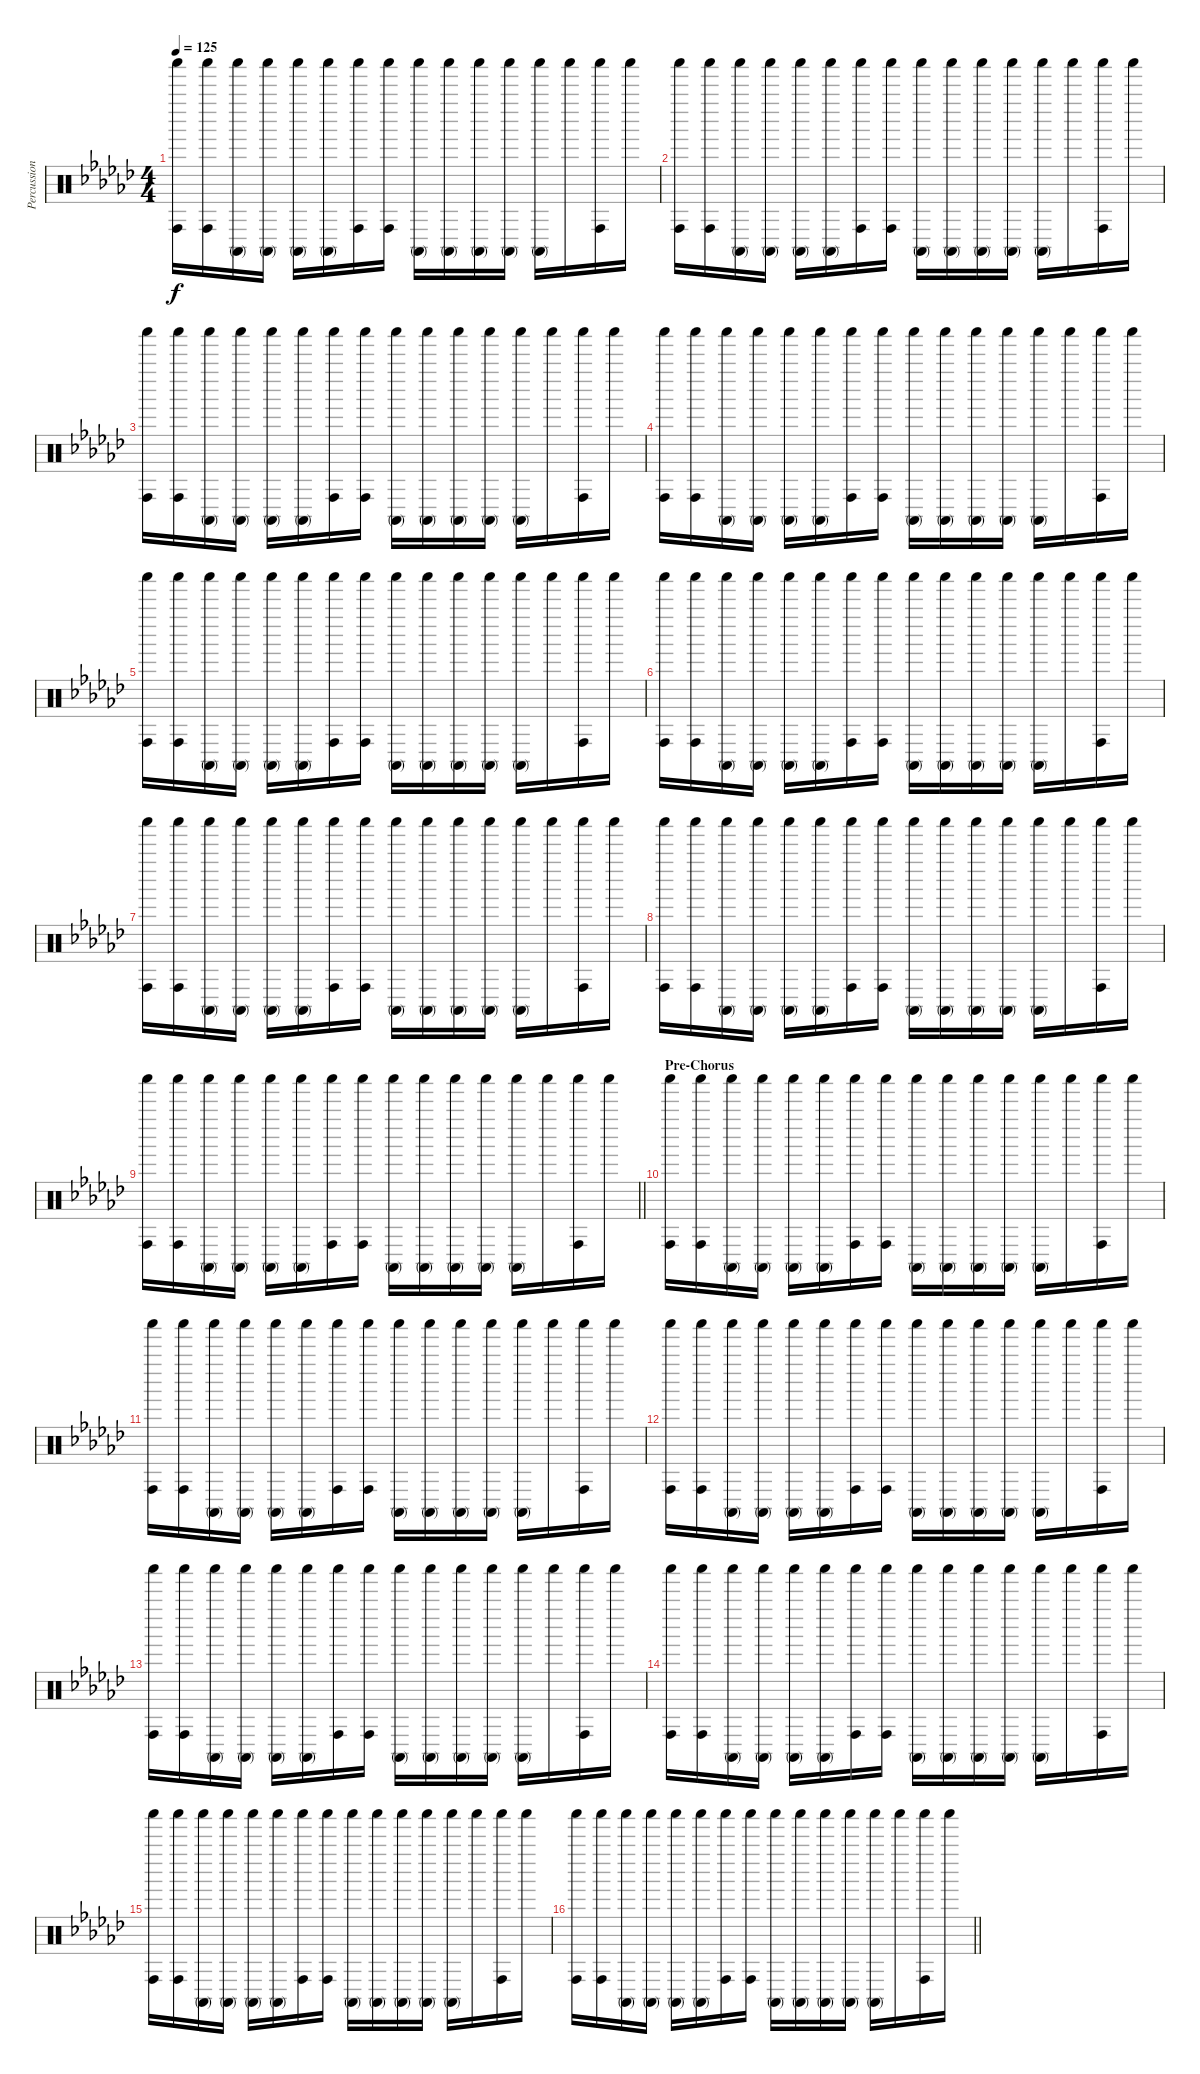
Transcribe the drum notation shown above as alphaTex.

\track ("Percussion" "Percussion") {instrument percussion}
\staff {score}
\articulation defaults
\ts (4 4)
\tempo 125
\clef neutral
\ks gb
("Shaker (hit)" "Conga high (hit)").16{dy f} ("Shaker (hit)" "Conga high (hit)").16 ("Shaker (hit)" "Conga high (mute)").16 ("Shaker (hit)" "Conga high (mute)").16 ("Shaker (hit)" "Conga high (mute)").16 ("Shaker (hit)" "Conga high (mute)").16 ("Shaker (hit)" "Conga high (hit)").16 ("Shaker (hit)" "Conga high (hit)").16 ("Shaker (hit)" "Conga high (mute)").16 ("Shaker (hit)" "Conga high (mute)").16 ("Shaker (hit)" "Conga high (mute)").16 ("Shaker (hit)" "Conga high (mute)").16 ("Shaker (hit)" "Conga high (mute)").16 "Shaker (hit)".16 ("Shaker (hit)" "Conga high (hit)").16 "Shaker (hit)".16 |
("Shaker (hit)" "Conga high (hit)").16 ("Shaker (hit)" "Conga high (hit)").16 ("Shaker (hit)" "Conga high (mute)").16 ("Shaker (hit)" "Conga high (mute)").16 ("Shaker (hit)" "Conga high (mute)").16 ("Shaker (hit)" "Conga high (mute)").16 ("Shaker (hit)" "Conga high (hit)").16 ("Shaker (hit)" "Conga high (hit)").16 ("Shaker (hit)" "Conga high (mute)").16 ("Shaker (hit)" "Conga high (mute)").16 ("Shaker (hit)" "Conga high (mute)").16 ("Shaker (hit)" "Conga high (mute)").16 ("Shaker (hit)" "Conga high (mute)").16 "Shaker (hit)".16 ("Shaker (hit)" "Conga high (hit)").16 "Shaker (hit)".16 |
("Shaker (hit)" "Conga high (hit)").16 ("Shaker (hit)" "Conga high (hit)").16 ("Shaker (hit)" "Conga high (mute)").16 ("Shaker (hit)" "Conga high (mute)").16 ("Shaker (hit)" "Conga high (mute)").16 ("Shaker (hit)" "Conga high (mute)").16 ("Shaker (hit)" "Conga high (hit)").16 ("Shaker (hit)" "Conga high (hit)").16 ("Shaker (hit)" "Conga high (mute)").16 ("Shaker (hit)" "Conga high (mute)").16 ("Shaker (hit)" "Conga high (mute)").16 ("Shaker (hit)" "Conga high (mute)").16 ("Shaker (hit)" "Conga high (mute)").16 "Shaker (hit)".16 ("Shaker (hit)" "Conga high (hit)").16 "Shaker (hit)".16 |
("Shaker (hit)" "Conga high (hit)").16 ("Shaker (hit)" "Conga high (hit)").16 ("Shaker (hit)" "Conga high (mute)").16 ("Shaker (hit)" "Conga high (mute)").16 ("Shaker (hit)" "Conga high (mute)").16 ("Shaker (hit)" "Conga high (mute)").16 ("Shaker (hit)" "Conga high (hit)").16 ("Shaker (hit)" "Conga high (hit)").16 ("Shaker (hit)" "Conga high (mute)").16 ("Shaker (hit)" "Conga high (mute)").16 ("Shaker (hit)" "Conga high (mute)").16 ("Shaker (hit)" "Conga high (mute)").16 ("Shaker (hit)" "Conga high (mute)").16 "Shaker (hit)".16 ("Shaker (hit)" "Conga high (hit)").16 "Shaker (hit)".16 |
("Shaker (hit)" "Conga high (hit)").16 ("Shaker (hit)" "Conga high (hit)").16 ("Shaker (hit)" "Conga high (mute)").16 ("Shaker (hit)" "Conga high (mute)").16 ("Shaker (hit)" "Conga high (mute)").16 ("Shaker (hit)" "Conga high (mute)").16 ("Shaker (hit)" "Conga high (hit)").16 ("Shaker (hit)" "Conga high (hit)").16 ("Shaker (hit)" "Conga high (mute)").16 ("Shaker (hit)" "Conga high (mute)").16 ("Shaker (hit)" "Conga high (mute)").16 ("Shaker (hit)" "Conga high (mute)").16 ("Shaker (hit)" "Conga high (mute)").16 "Shaker (hit)".16 ("Shaker (hit)" "Conga high (hit)").16 "Shaker (hit)".16 |
("Shaker (hit)" "Conga high (hit)").16 ("Shaker (hit)" "Conga high (hit)").16 ("Shaker (hit)" "Conga high (mute)").16 ("Shaker (hit)" "Conga high (mute)").16 ("Shaker (hit)" "Conga high (mute)").16 ("Shaker (hit)" "Conga high (mute)").16 ("Shaker (hit)" "Conga high (hit)").16 ("Shaker (hit)" "Conga high (hit)").16 ("Shaker (hit)" "Conga high (mute)").16 ("Shaker (hit)" "Conga high (mute)").16 ("Shaker (hit)" "Conga high (mute)").16 ("Shaker (hit)" "Conga high (mute)").16 ("Shaker (hit)" "Conga high (mute)").16 "Shaker (hit)".16 ("Shaker (hit)" "Conga high (hit)").16 "Shaker (hit)".16 |
("Shaker (hit)" "Conga high (hit)").16 ("Shaker (hit)" "Conga high (hit)").16 ("Shaker (hit)" "Conga high (mute)").16 ("Shaker (hit)" "Conga high (mute)").16 ("Shaker (hit)" "Conga high (mute)").16 ("Shaker (hit)" "Conga high (mute)").16 ("Shaker (hit)" "Conga high (hit)").16 ("Shaker (hit)" "Conga high (hit)").16 ("Shaker (hit)" "Conga high (mute)").16 ("Shaker (hit)" "Conga high (mute)").16 ("Shaker (hit)" "Conga high (mute)").16 ("Shaker (hit)" "Conga high (mute)").16 ("Shaker (hit)" "Conga high (mute)").16 "Shaker (hit)".16 ("Shaker (hit)" "Conga high (hit)").16 "Shaker (hit)".16 |
("Shaker (hit)" "Conga high (hit)").16 ("Shaker (hit)" "Conga high (hit)").16 ("Shaker (hit)" "Conga high (mute)").16 ("Shaker (hit)" "Conga high (mute)").16 ("Shaker (hit)" "Conga high (mute)").16 ("Shaker (hit)" "Conga high (mute)").16 ("Shaker (hit)" "Conga high (hit)").16 ("Shaker (hit)" "Conga high (hit)").16 ("Shaker (hit)" "Conga high (mute)").16 ("Shaker (hit)" "Conga high (mute)").16 ("Shaker (hit)" "Conga high (mute)").16 ("Shaker (hit)" "Conga high (mute)").16 ("Shaker (hit)" "Conga high (mute)").16 "Shaker (hit)".16 ("Shaker (hit)" "Conga high (hit)").16 "Shaker (hit)".16 |
\barLineRight lightlight
("Shaker (hit)" "Conga high (hit)").16 ("Shaker (hit)" "Conga high (hit)").16 ("Shaker (hit)" "Conga high (mute)").16 ("Shaker (hit)" "Conga high (mute)").16 ("Shaker (hit)" "Conga high (mute)").16 ("Shaker (hit)" "Conga high (mute)").16 ("Shaker (hit)" "Conga high (hit)").16 ("Shaker (hit)" "Conga high (hit)").16 ("Shaker (hit)" "Conga high (mute)").16 ("Shaker (hit)" "Conga high (mute)").16 ("Shaker (hit)" "Conga high (mute)").16 ("Shaker (hit)" "Conga high (mute)").16 ("Shaker (hit)" "Conga high (mute)").16 "Shaker (hit)".16 ("Shaker (hit)" "Conga high (hit)").16 "Shaker (hit)".16 |
\section ("" "Pre-Chorus")
("Shaker (hit)" "Conga high (hit)").16 ("Shaker (hit)" "Conga high (hit)").16 ("Shaker (hit)" "Conga high (mute)").16 ("Shaker (hit)" "Conga high (mute)").16 ("Shaker (hit)" "Conga high (mute)").16 ("Shaker (hit)" "Conga high (mute)").16 ("Shaker (hit)" "Conga high (hit)").16 ("Shaker (hit)" "Conga high (hit)").16 ("Shaker (hit)" "Conga high (mute)").16 ("Shaker (hit)" "Conga high (mute)").16 ("Shaker (hit)" "Conga high (mute)").16 ("Shaker (hit)" "Conga high (mute)").16 ("Shaker (hit)" "Conga high (mute)").16 "Shaker (hit)".16 ("Shaker (hit)" "Conga high (hit)").16 "Shaker (hit)".16 |
("Shaker (hit)" "Conga high (hit)").16 ("Shaker (hit)" "Conga high (hit)").16 ("Shaker (hit)" "Conga high (mute)").16 ("Shaker (hit)" "Conga high (mute)").16 ("Shaker (hit)" "Conga high (mute)").16 ("Shaker (hit)" "Conga high (mute)").16 ("Shaker (hit)" "Conga high (hit)").16 ("Shaker (hit)" "Conga high (hit)").16 ("Shaker (hit)" "Conga high (mute)").16 ("Shaker (hit)" "Conga high (mute)").16 ("Shaker (hit)" "Conga high (mute)").16 ("Shaker (hit)" "Conga high (mute)").16 ("Shaker (hit)" "Conga high (mute)").16 "Shaker (hit)".16 ("Shaker (hit)" "Conga high (hit)").16 "Shaker (hit)".16 |
("Shaker (hit)" "Conga high (hit)").16 ("Shaker (hit)" "Conga high (hit)").16 ("Shaker (hit)" "Conga high (mute)").16 ("Shaker (hit)" "Conga high (mute)").16 ("Shaker (hit)" "Conga high (mute)").16 ("Shaker (hit)" "Conga high (mute)").16 ("Shaker (hit)" "Conga high (hit)").16 ("Shaker (hit)" "Conga high (hit)").16 ("Shaker (hit)" "Conga high (mute)").16 ("Shaker (hit)" "Conga high (mute)").16 ("Shaker (hit)" "Conga high (mute)").16 ("Shaker (hit)" "Conga high (mute)").16 ("Shaker (hit)" "Conga high (mute)").16 "Shaker (hit)".16 ("Shaker (hit)" "Conga high (hit)").16 "Shaker (hit)".16 |
("Shaker (hit)" "Conga high (hit)").16 ("Shaker (hit)" "Conga high (hit)").16 ("Shaker (hit)" "Conga high (mute)").16 ("Shaker (hit)" "Conga high (mute)").16 ("Shaker (hit)" "Conga high (mute)").16 ("Shaker (hit)" "Conga high (mute)").16 ("Shaker (hit)" "Conga high (hit)").16 ("Shaker (hit)" "Conga high (hit)").16 ("Shaker (hit)" "Conga high (mute)").16 ("Shaker (hit)" "Conga high (mute)").16 ("Shaker (hit)" "Conga high (mute)").16 ("Shaker (hit)" "Conga high (mute)").16 ("Shaker (hit)" "Conga high (mute)").16 "Shaker (hit)".16 ("Shaker (hit)" "Conga high (hit)").16 "Shaker (hit)".16 |
("Shaker (hit)" "Conga high (hit)").16 ("Shaker (hit)" "Conga high (hit)").16 ("Shaker (hit)" "Conga high (mute)").16 ("Shaker (hit)" "Conga high (mute)").16 ("Shaker (hit)" "Conga high (mute)").16 ("Shaker (hit)" "Conga high (mute)").16 ("Shaker (hit)" "Conga high (hit)").16 ("Shaker (hit)" "Conga high (hit)").16 ("Shaker (hit)" "Conga high (mute)").16 ("Shaker (hit)" "Conga high (mute)").16 ("Shaker (hit)" "Conga high (mute)").16 ("Shaker (hit)" "Conga high (mute)").16 ("Shaker (hit)" "Conga high (mute)").16 "Shaker (hit)".16 ("Shaker (hit)" "Conga high (hit)").16 "Shaker (hit)".16 |
("Shaker (hit)" "Conga high (hit)").16 ("Shaker (hit)" "Conga high (hit)").16 ("Shaker (hit)" "Conga high (mute)").16 ("Shaker (hit)" "Conga high (mute)").16 ("Shaker (hit)" "Conga high (mute)").16 ("Shaker (hit)" "Conga high (mute)").16 ("Shaker (hit)" "Conga high (hit)").16 ("Shaker (hit)" "Conga high (hit)").16 ("Shaker (hit)" "Conga high (mute)").16 ("Shaker (hit)" "Conga high (mute)").16 ("Shaker (hit)" "Conga high (mute)").16 ("Shaker (hit)" "Conga high (mute)").16 ("Shaker (hit)" "Conga high (mute)").16 "Shaker (hit)".16 ("Shaker (hit)" "Conga high (hit)").16 "Shaker (hit)".16 |
\barLineRight lightlight
("Shaker (hit)" "Conga high (hit)").16 ("Shaker (hit)" "Conga high (hit)").16 ("Shaker (hit)" "Conga high (mute)").16 ("Shaker (hit)" "Conga high (mute)").16 ("Shaker (hit)" "Conga high (mute)").16 ("Shaker (hit)" "Conga high (mute)").16 ("Shaker (hit)" "Conga high (hit)").16 ("Shaker (hit)" "Conga high (hit)").16 ("Shaker (hit)" "Conga high (mute)").16 ("Shaker (hit)" "Conga high (mute)").16 ("Shaker (hit)" "Conga high (mute)").16 ("Shaker (hit)" "Conga high (mute)").16 ("Shaker (hit)" "Conga high (mute)").16 "Shaker (hit)".16 ("Shaker (hit)" "Conga high (hit)").16 "Shaker (hit)".16
